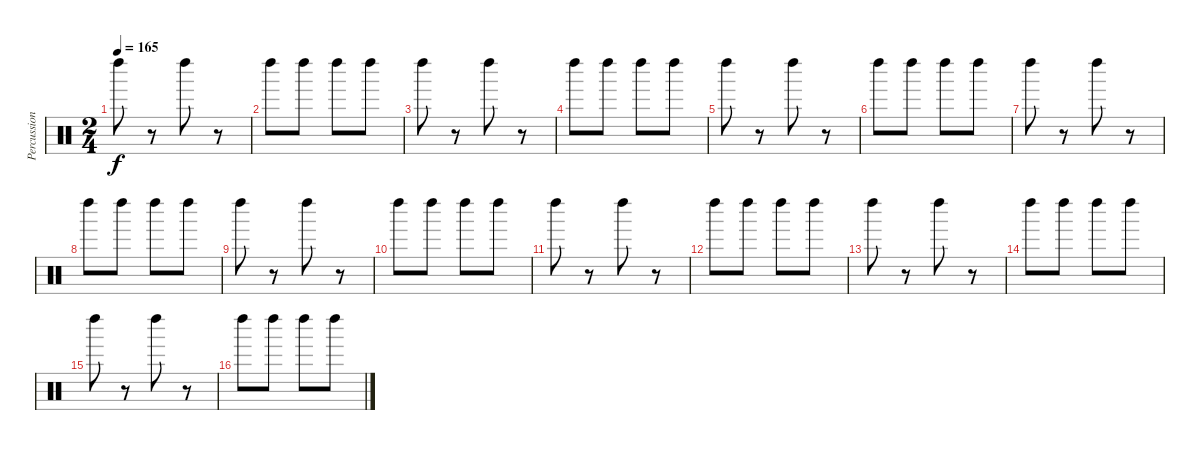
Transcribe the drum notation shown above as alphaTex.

\track ("Percussion" "Percussion") {instrument percussion}
\staff {score}
\articulation defaults
\ts (2 4)
\tempo 165
\clef neutral
\ks c "Left Maraca (hit)".8{dy f}
r.8 "Left Maraca (hit)".8 r.8 |
"Left Maraca (hit)".8 "Left Maraca (hit)".8 "Left Maraca (hit)".8 "Left Maraca (hit)".8 |
"Left Maraca (hit)".8 r.8 "Left Maraca (hit)".8 r.8 |
"Left Maraca (hit)".8 "Left Maraca (hit)".8 "Left Maraca (hit)".8 "Left Maraca (hit)".8 |
"Left Maraca (hit)".8 r.8 "Left Maraca (hit)".8 r.8 |
"Left Maraca (hit)".8 "Left Maraca (hit)".8 "Left Maraca (hit)".8 "Left Maraca (hit)".8 |
"Left Maraca (hit)".8 r.8 "Left Maraca (hit)".8 r.8 |
"Left Maraca (hit)".8 "Left Maraca (hit)".8 "Left Maraca (hit)".8 "Left Maraca (hit)".8 |
"Left Maraca (hit)".8 r.8 "Left Maraca (hit)".8 r.8 |
"Left Maraca (hit)".8 "Left Maraca (hit)".8 "Left Maraca (hit)".8 "Left Maraca (hit)".8 |
"Left Maraca (hit)".8 r.8 "Left Maraca (hit)".8 r.8 |
"Left Maraca (hit)".8 "Left Maraca (hit)".8 "Left Maraca (hit)".8 "Left Maraca (hit)".8 |
"Left Maraca (hit)".8 r.8 "Left Maraca (hit)".8 r.8 |
"Left Maraca (hit)".8 "Left Maraca (hit)".8 "Left Maraca (hit)".8 "Left Maraca (hit)".8 |
"Left Maraca (hit)".8 r.8 "Left Maraca (hit)".8 r.8 |
"Left Maraca (hit)".8 "Left Maraca (hit)".8 "Left Maraca (hit)".8 "Left Maraca (hit)".8
